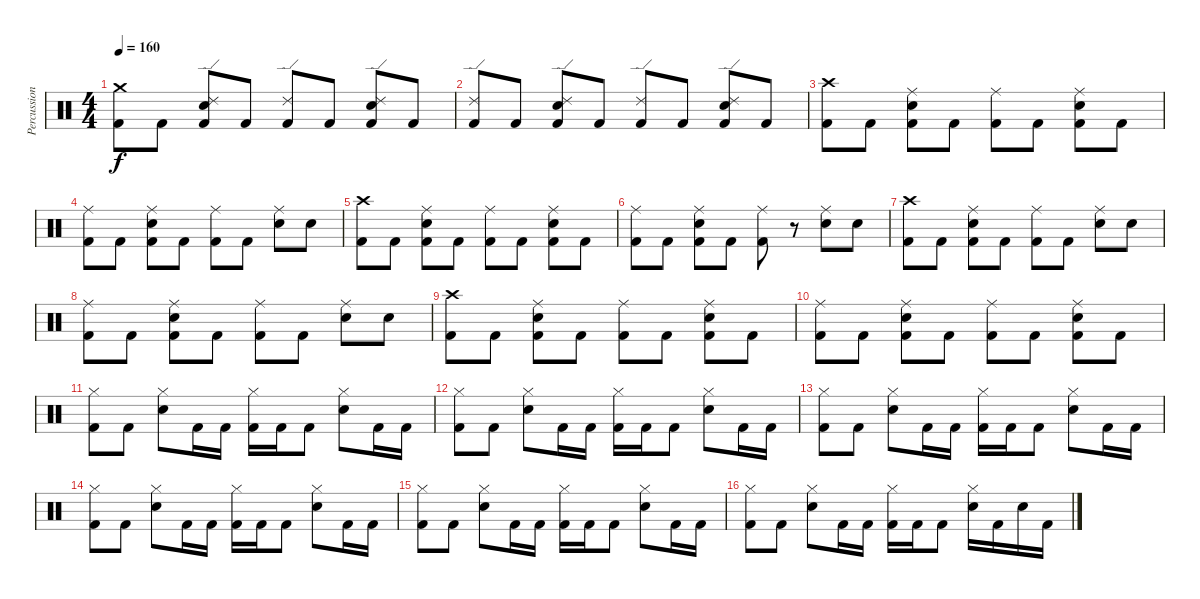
\track ("Percussion" "Percussion") {instrument percussion}
\staff {score}
\articulation defaults
\ts (4 4)
\tempo 160
\clef neutral
\ks c
("Crash medium (hit)" "Kick (hit) 2").8{dy f} "Kick (hit) 2".8 ("Ride (edge) 2" "Electric Snare (hit)" "Kick (hit) 2").8 "Kick (hit) 2".8 ("Ride (edge) 2" "Kick (hit) 2").8 "Kick (hit) 2".8 ("Ride (edge) 2" "Electric Snare (hit)" "Kick (hit) 2").8 "Kick (hit) 2".8 |
("Ride (edge) 2" "Kick (hit) 2").8 "Kick (hit) 2".8 ("Ride (edge) 2" "Electric Snare (hit)" "Kick (hit) 2").8 "Kick (hit) 2".8 ("Ride (edge) 2" "Kick (hit) 2").8 "Kick (hit) 2".8 ("Ride (edge) 2" "Electric Snare (hit)" "Kick (hit) 2").8 "Kick (hit) 2".8 |
("Crash high (hit)" "Kick (hit) 2").8 "Kick (hit) 2".8 ("Ride (middle)" "Electric Snare (hit)" "Kick (hit) 2").8 "Kick (hit) 2".8 ("Ride (middle)" "Kick (hit) 2").8 "Kick (hit) 2".8 ("Ride (middle)" "Electric Snare (hit)" "Kick (hit) 2").8 "Kick (hit) 2".8 |
("Ride (middle)" "Kick (hit) 2").8 "Kick (hit) 2".8 ("Ride (middle)" "Electric Snare (hit)" "Kick (hit) 2").8 "Kick (hit) 2".8 ("Ride (middle)" "Kick (hit) 2").8 "Kick (hit) 2".8 ("Ride (middle)" "Electric Snare (hit)").8 "Electric Snare (hit)".8 |
("Crash high (hit)" "Kick (hit) 2").8 "Kick (hit) 2".8 ("Ride (middle)" "Electric Snare (hit)" "Kick (hit) 2").8 "Kick (hit) 2".8 ("Ride (middle)" "Kick (hit) 2").8 "Kick (hit) 2".8 ("Ride (middle)" "Electric Snare (hit)" "Kick (hit) 2").8 "Kick (hit) 2".8 |
("Ride (middle)" "Kick (hit) 2").8 "Kick (hit) 2".8 ("Ride (middle)" "Electric Snare (hit)" "Kick (hit) 2").8 "Kick (hit) 2".8 ("Ride (middle)" "Kick (hit) 2").8 r.8 ("Ride (middle)" "Electric Snare (hit)").8 "Electric Snare (hit)".8 |
("Crash high (hit)" "Kick (hit) 2").8 "Kick (hit) 2".8 ("Ride (middle)" "Electric Snare (hit)" "Kick (hit) 2").8 "Kick (hit) 2".8 ("Ride (middle)" "Kick (hit) 2").8 "Kick (hit) 2".8 ("Ride (middle)" "Electric Snare (hit)").8 "Electric Snare (hit)".8 |
("Ride (middle)" "Kick (hit) 2").8 "Kick (hit) 2".8 ("Ride (middle)" "Electric Snare (hit)" "Kick (hit) 2").8 "Kick (hit) 2".8 ("Ride (middle)" "Kick (hit) 2").8 "Kick (hit) 2".8 ("Ride (middle)" "Electric Snare (hit)").8 "Electric Snare (hit)".8 |
("Crash high (hit)" "Kick (hit) 2").8 "Kick (hit) 2".8 ("Ride (middle)" "Electric Snare (hit)" "Kick (hit) 2").8 "Kick (hit) 2".8 ("Ride (middle)" "Kick (hit) 2").8 "Kick (hit) 2".8 ("Ride (middle)" "Electric Snare (hit)" "Kick (hit) 2").8 "Kick (hit) 2".8 |
("Ride (middle)" "Kick (hit) 2").8 "Kick (hit) 2".8 ("Ride (middle)" "Electric Snare (hit)" "Kick (hit) 2").8 "Kick (hit) 2".8 ("Ride (middle)" "Kick (hit) 2").8 "Kick (hit) 2".8 ("Ride (middle)" "Electric Snare (hit)" "Kick (hit) 2").8 "Kick (hit) 2".8 |
("Hi-Hat (closed)" "Kick (hit) 2").8 "Kick (hit) 2".8 ("Hi-Hat (closed)" "Electric Snare (hit)").8 "Kick (hit) 2".16 "Kick (hit) 2".16 ("Hi-Hat (closed)" "Kick (hit) 2").16 "Kick (hit) 2".16 "Kick (hit) 2".8 ("Hi-Hat (closed)" "Electric Snare (hit)").8 "Kick (hit) 2".16 "Kick (hit) 2".16 |
("Hi-Hat (closed)" "Kick (hit) 2").8 "Kick (hit) 2".8 ("Hi-Hat (closed)" "Electric Snare (hit)").8 "Kick (hit) 2".16 "Kick (hit) 2".16 ("Hi-Hat (closed)" "Kick (hit) 2").16 "Kick (hit) 2".16 "Kick (hit) 2".8 ("Hi-Hat (closed)" "Electric Snare (hit)").8 "Kick (hit) 2".16 "Kick (hit) 2".16 |
("Hi-Hat (closed)" "Kick (hit) 2").8 "Kick (hit) 2".8 ("Hi-Hat (closed)" "Electric Snare (hit)").8 "Kick (hit) 2".16 "Kick (hit) 2".16 ("Hi-Hat (closed)" "Kick (hit) 2").16 "Kick (hit) 2".16 "Kick (hit) 2".8 ("Hi-Hat (closed)" "Electric Snare (hit)").8 "Kick (hit) 2".16 "Kick (hit) 2".16 |
("Hi-Hat (closed)" "Kick (hit) 2").8 "Kick (hit) 2".8 ("Hi-Hat (closed)" "Electric Snare (hit)").8 "Kick (hit) 2".16 "Kick (hit) 2".16 ("Hi-Hat (closed)" "Kick (hit) 2").16 "Kick (hit) 2".16 "Kick (hit) 2".8 ("Hi-Hat (closed)" "Electric Snare (hit)").8 "Kick (hit) 2".16 "Kick (hit) 2".16 |
("Hi-Hat (closed)" "Kick (hit) 2").8 "Kick (hit) 2".8 ("Hi-Hat (closed)" "Electric Snare (hit)").8 "Kick (hit) 2".16 "Kick (hit) 2".16 ("Hi-Hat (closed)" "Kick (hit) 2").16 "Kick (hit) 2".16 "Kick (hit) 2".8 ("Hi-Hat (closed)" "Electric Snare (hit)").8 "Kick (hit) 2".16 "Kick (hit) 2".16 |
("Hi-Hat (closed)" "Kick (hit) 2").8 "Kick (hit) 2".8 ("Hi-Hat (closed)" "Electric Snare (hit)").8 "Kick (hit) 2".16 "Kick (hit) 2".16 ("Hi-Hat (closed)" "Kick (hit) 2").16 "Kick (hit) 2".16 "Kick (hit) 2".8 ("Hi-Hat (closed)" "Electric Snare (hit)").16 "Kick (hit) 2".16 "Electric Snare (hit)".16 "Kick (hit) 2".16
